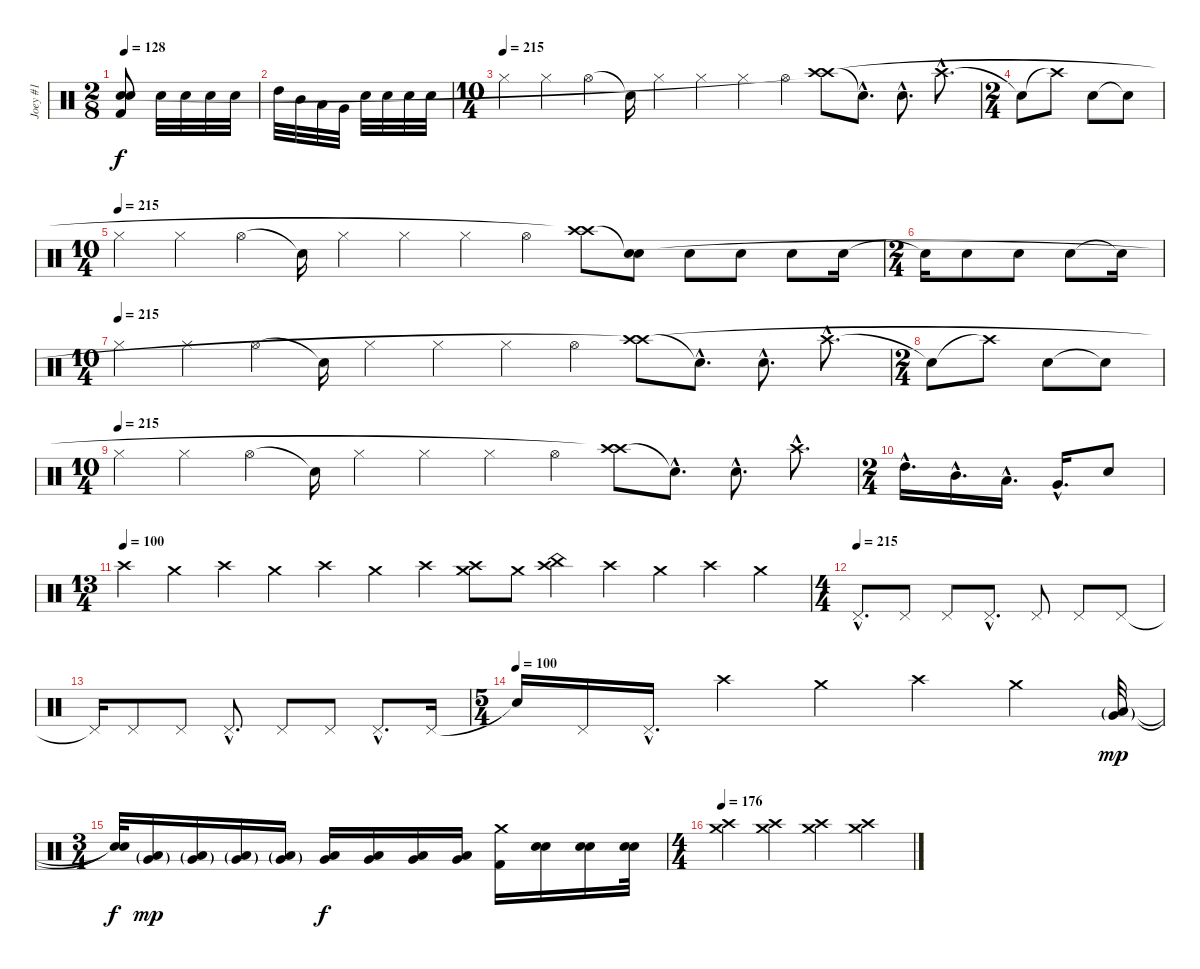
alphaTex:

\track ("Joey #1" "Joey #1") {instrument percussion}
\staff {score}
\articulation defaults
\ts (2 8)
\tempo 128
\clef neutral
\ks c
("Electric Snare (hit)" "Electric Snare (hit)" "Kick (hit) 2").8{dy f} "Snare (hit) 2".32 "Snare (hit) 2".32 "Snare (hit) 2".32 "Snare (hit) 2".32 |
"High Tom (hit)".32 "Mid Tom (hit)".32 "Low Tom (hit)".32 "Very Low Tom (hit)".32 "Snare (hit) 2".32 "Snare (hit) 2".32 "Snare (hit) 2".32 "Snare (hit) 2".32 |
\ts (10 4)
\tempo (215)
"Hi-Hat (closed)".4{volume 12} "Hi-Hat (closed)".4 "Hi-Hat (open)".4 "Snare (hit)"{t}.16 "Hi-Hat (closed)".4 "Hi-Hat (closed)".4 "Hi-Hat (closed)".4 "Hi-Hat (open)".4 ("Crash high (hit)" "Crash high (hit)"{t}).8 "Snare (hit)"{hac t}.8{d} "Snare (hit) 2"{hac}.8{d} "Crash high (hit)"{hac}.8{d} |
\ts (2 4)
"Snare (hit)"{t}.8 "Crash high (hit)"{t}.8 "Snare (hit) 2".8 "Snare (hit)"{t}.8 |
\ts (10 4)
\tempo (215)
"Hi-Hat (closed)".4{volume 12} "Hi-Hat (closed)".4 "Hi-Hat (open)".4 "Snare (hit)"{t}.16 "Hi-Hat (closed)".4 "Hi-Hat (closed)".4 "Hi-Hat (closed)".4 "Hi-Hat (open)".4 ("Crash high (hit)" "Crash high (hit)"{t}).8 ("Snare (hit)"{t} "Snare (hit) 2").8 "Snare (hit) 2".8 "Snare (hit) 2".8 "Snare (hit) 2".8 "Snare (hit) 2".16 |
\ts (2 4)
"Snare (hit) 2"{t}.16 "Snare (hit) 2".8 "Snare (hit) 2".8 "Snare (hit) 2".8 "Snare (hit)"{t}.16 |
\ts (10 4)
\tempo (215)
"Hi-Hat (closed)".4{volume 12} "Hi-Hat (closed)".4 "Hi-Hat (open)".4 "Snare (hit)"{t}.16 "Hi-Hat (closed)".4 "Hi-Hat (closed)".4 "Hi-Hat (closed)".4 "Hi-Hat (open)".4 ("Crash high (hit)" "Crash high (hit)"{t}).8 "Snare (hit)"{hac t}.8{d} "Snare (hit) 2"{hac}.8{d} "Crash high (hit)"{hac}.8{d} |
\ts (2 4)
"Snare (hit)"{t}.8 "Crash high (hit)"{t}.8 "Snare (hit) 2".8 "Snare (hit)"{t}.8 |
\ts (10 4)
\tempo (215)
"Hi-Hat (closed)".4{volume 12} "Hi-Hat (closed)".4 "Hi-Hat (open)".4 "Snare (hit)"{t}.16 "Hi-Hat (closed)".4 "Hi-Hat (closed)".4 "Hi-Hat (closed)".4 "Hi-Hat (open)".4 ("Crash high (hit)" "Crash high (hit)"{t}).8 "Snare (hit)"{hac t}.8{d} "Snare (hit) 2"{hac}.8{d} "Crash high (hit)"{hac}.8{d} |
\ts (2 4)
"High Tom (hit)"{hac}.16{d} "Mid Tom (hit)"{hac}.16{d} "Low Tom (hit)"{hac}.16{d} "Very Low Tom (hit)"{hac}.16{d} "Snare (hit) 2".8 |
\ts (13 4)
\tempo (100)
"Crash high (hit)".4{volume 16} "Crash medium (hit)".4 "Crash high (hit)".4 "Crash medium (hit)".4 "Crash high (hit)".4 "Crash medium (hit)".4 "Crash high (hit)".4 ("Crash medium (hit)" "Crash high (hit)").8 "Crash medium (hit)".8 ("Crash high (hit)" "China (hit)").4 "Crash high (hit)".4 "Crash medium (hit)".4 "Crash high (hit)".4 "Crash medium (hit)".4 |
\ts (4 4)
\tempo (215)
"Pedal Hi-Hat (hit)"{hac}.8{d} "Pedal Hi-Hat (hit)".8 "Pedal Hi-Hat (hit)".8 "Pedal Hi-Hat (hit)"{hac}.8{d} "Pedal Hi-Hat (hit)".8 "Pedal Hi-Hat (hit)".8 "Pedal Hi-Hat (hit)".8 |
"Pedal Hi-Hat (hit)"{t}.16 "Pedal Hi-Hat (hit)".8 "Pedal Hi-Hat (hit)".8 "Pedal Hi-Hat (hit)"{hac}.8{d} "Pedal Hi-Hat (hit)".8 "Pedal Hi-Hat (hit)".8 "Pedal Hi-Hat (hit)"{hac}.8{d} "Pedal Hi-Hat (hit)".16 |
\ts (5 4)
\tempo (100)
"Snare (hit)"{t}.16 "Pedal Hi-Hat (hit)".16 "Pedal Hi-Hat (hit)"{hac}.16{d} "Crash high (hit)".4 "Crash medium (hit)".4 "Crash high (hit)".4 "Crash medium (hit)".4 ("Low Floor Tom (hit)"{g} "Very Low Tom (hit)"{g}).32{dy mp} |
\ts (3 4)
("Snare (hit)"{t} "Snare (hit)"{t}).32{dy f} ("Low Floor Tom (hit)"{g} "Very Low Tom (hit)"{g}).16{dy mp} ("Low Floor Tom (hit)"{g} "Very Low Tom (hit)"{g}).16 ("Low Floor Tom (hit)"{g} "Very Low Tom (hit)"{g}).16 ("Low Floor Tom (hit)"{g} "Very Low Tom (hit)"{g}).16 ("Low Floor Tom (hit)" "Very Low Tom (hit)").16{dy f} ("Low Floor Tom (hit)" "Very Low Tom (hit)").16 ("Low Floor Tom (hit)" "Very Low Tom (hit)").16 ("Low Floor Tom (hit)" "Very Low Tom (hit)").16 ("Kick (hit) 2" "Crash medium (hit)").16 ("Snare (hit)"{x} "Snare (hit)"{x}).16 ("Snare (hit)"{x} "Snare (hit)"{x}).16 ("Snare (hit)"{x} "Snare (hit)"{x}).32 |
\ts (4 4)
\tempo 176
("Crash high (hit)" "Crash medium (hit)").4 ("Crash high (hit)" "Crash medium (hit)").4 ("Crash high (hit)" "Crash medium (hit)").4 ("Crash high (hit)" "Crash medium (hit)").4
